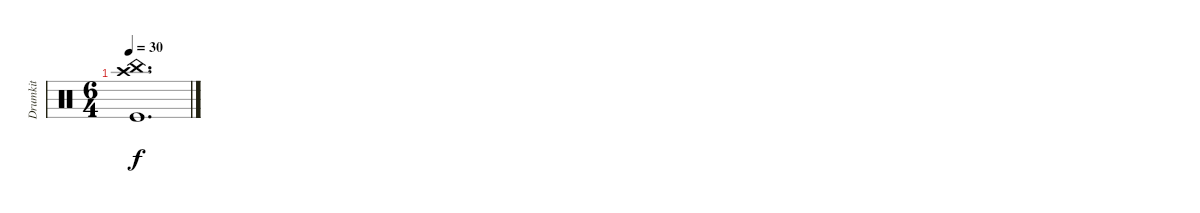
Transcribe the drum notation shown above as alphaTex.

\track ("Drumkit" "Drumkit") {instrument percussion}
\staff {score}
\articulation defaults
\ts (6 4)
\tempo 30
\clef neutral
\ks c
("Kick (hit)" "Crash high (hit)" "China (hit)").1{d dy f}
